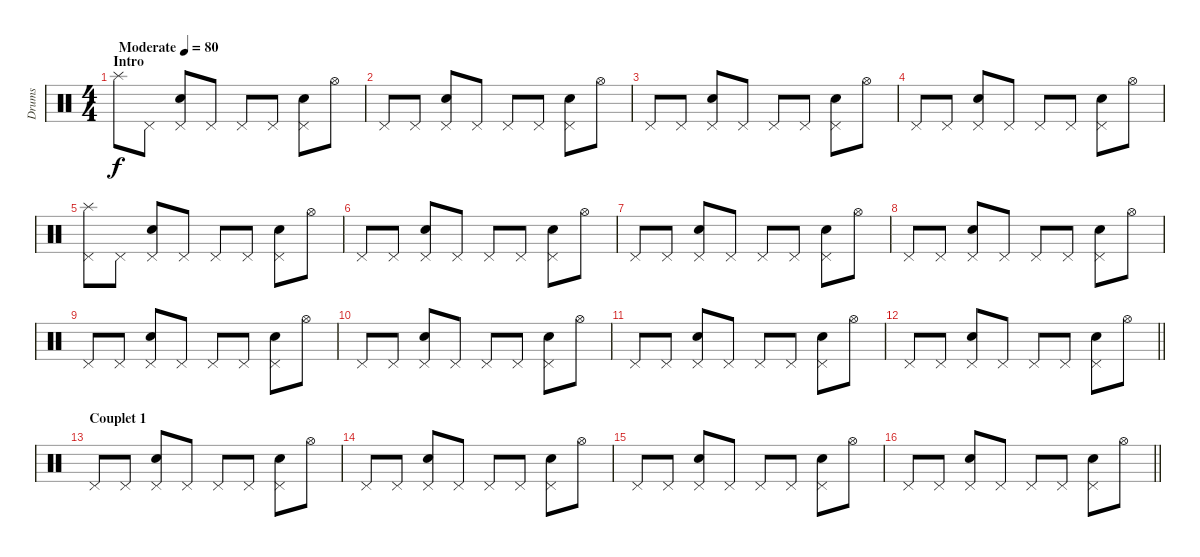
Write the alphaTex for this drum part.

\track ("Drums" "Drums") {instrument percussion}
\staff {score}
\articulation defaults
\ts (4 4)
\section ("" "Intro")
\tempo (80 "Moderate")
\clef neutral
\ks c "Splash (hit)".8{dy f} "Pedal Hi-Hat (hit)".8
("Pedal Hi-Hat (hit)" "Snare (hit) 2").8 "Pedal Hi-Hat (hit)".8 "Pedal Hi-Hat (hit)".8 "Pedal Hi-Hat (hit)".8 ("Pedal Hi-Hat (hit)" "Snare (hit) 2").8 "Hi-Hat (open)".8 |
"Pedal Hi-Hat (hit)".8 "Pedal Hi-Hat (hit)".8 ("Pedal Hi-Hat (hit)" "Snare (hit) 2").8 "Pedal Hi-Hat (hit)".8 "Pedal Hi-Hat (hit)".8 "Pedal Hi-Hat (hit)".8 ("Pedal Hi-Hat (hit)" "Snare (hit) 2").8 "Hi-Hat (open)".8 |
"Pedal Hi-Hat (hit)".8 "Pedal Hi-Hat (hit)".8 ("Pedal Hi-Hat (hit)" "Snare (hit) 2").8 "Pedal Hi-Hat (hit)".8 "Pedal Hi-Hat (hit)".8 "Pedal Hi-Hat (hit)".8 ("Pedal Hi-Hat (hit)" "Snare (hit) 2").8 "Hi-Hat (open)".8 |
"Pedal Hi-Hat (hit)".8 "Pedal Hi-Hat (hit)".8 ("Pedal Hi-Hat (hit)" "Snare (hit) 2").8 "Pedal Hi-Hat (hit)".8 "Pedal Hi-Hat (hit)".8 "Pedal Hi-Hat (hit)".8 ("Pedal Hi-Hat (hit)" "Snare (hit) 2").8 "Hi-Hat (open)".8 |
("Pedal Hi-Hat (hit)" "Splash (hit)").8 "Pedal Hi-Hat (hit)".8 ("Pedal Hi-Hat (hit)" "Snare (hit) 2").8 "Pedal Hi-Hat (hit)".8 "Pedal Hi-Hat (hit)".8 "Pedal Hi-Hat (hit)".8 ("Pedal Hi-Hat (hit)" "Snare (hit) 2").8 "Hi-Hat (open)".8 |
"Pedal Hi-Hat (hit)".8 "Pedal Hi-Hat (hit)".8 ("Pedal Hi-Hat (hit)" "Snare (hit) 2").8 "Pedal Hi-Hat (hit)".8 "Pedal Hi-Hat (hit)".8 "Pedal Hi-Hat (hit)".8 ("Pedal Hi-Hat (hit)" "Snare (hit) 2").8 "Hi-Hat (open)".8 |
"Pedal Hi-Hat (hit)".8 "Pedal Hi-Hat (hit)".8 ("Pedal Hi-Hat (hit)" "Snare (hit) 2").8 "Pedal Hi-Hat (hit)".8 "Pedal Hi-Hat (hit)".8 "Pedal Hi-Hat (hit)".8 ("Pedal Hi-Hat (hit)" "Snare (hit) 2").8 "Hi-Hat (open)".8 |
"Pedal Hi-Hat (hit)".8 "Pedal Hi-Hat (hit)".8 ("Pedal Hi-Hat (hit)" "Snare (hit) 2").8 "Pedal Hi-Hat (hit)".8 "Pedal Hi-Hat (hit)".8 "Pedal Hi-Hat (hit)".8 ("Pedal Hi-Hat (hit)" "Snare (hit) 2").8 "Hi-Hat (open)".8 |
"Pedal Hi-Hat (hit)".8 "Pedal Hi-Hat (hit)".8 ("Pedal Hi-Hat (hit)" "Snare (hit) 2").8 "Pedal Hi-Hat (hit)".8 "Pedal Hi-Hat (hit)".8 "Pedal Hi-Hat (hit)".8 ("Pedal Hi-Hat (hit)" "Snare (hit) 2").8 "Hi-Hat (open)".8 |
"Pedal Hi-Hat (hit)".8 "Pedal Hi-Hat (hit)".8 ("Pedal Hi-Hat (hit)" "Snare (hit) 2").8 "Pedal Hi-Hat (hit)".8 "Pedal Hi-Hat (hit)".8 "Pedal Hi-Hat (hit)".8 ("Pedal Hi-Hat (hit)" "Snare (hit) 2").8 "Hi-Hat (open)".8 |
"Pedal Hi-Hat (hit)".8 "Pedal Hi-Hat (hit)".8 ("Pedal Hi-Hat (hit)" "Snare (hit) 2").8 "Pedal Hi-Hat (hit)".8 "Pedal Hi-Hat (hit)".8 "Pedal Hi-Hat (hit)".8 ("Pedal Hi-Hat (hit)" "Snare (hit) 2").8 "Hi-Hat (open)".8 |
\barLineRight lightlight "Pedal Hi-Hat (hit)".8 "Pedal Hi-Hat (hit)".8
("Pedal Hi-Hat (hit)" "Snare (hit) 2").8 "Pedal Hi-Hat (hit)".8 "Pedal Hi-Hat (hit)".8 "Pedal Hi-Hat (hit)".8 ("Pedal Hi-Hat (hit)" "Snare (hit) 2").8 "Hi-Hat (open)".8 |
\section ("" "Couplet 1")
"Pedal Hi-Hat (hit)".8 "Pedal Hi-Hat (hit)".8 ("Pedal Hi-Hat (hit)" "Snare (hit) 2").8 "Pedal Hi-Hat (hit)".8 "Pedal Hi-Hat (hit)".8 "Pedal Hi-Hat (hit)".8 ("Pedal Hi-Hat (hit)" "Snare (hit) 2").8 "Hi-Hat (open)".8 |
"Pedal Hi-Hat (hit)".8 "Pedal Hi-Hat (hit)".8 ("Pedal Hi-Hat (hit)" "Snare (hit) 2").8 "Pedal Hi-Hat (hit)".8 "Pedal Hi-Hat (hit)".8 "Pedal Hi-Hat (hit)".8 ("Pedal Hi-Hat (hit)" "Snare (hit) 2").8 "Hi-Hat (open)".8 |
"Pedal Hi-Hat (hit)".8 "Pedal Hi-Hat (hit)".8 ("Pedal Hi-Hat (hit)" "Snare (hit) 2").8 "Pedal Hi-Hat (hit)".8 "Pedal Hi-Hat (hit)".8 "Pedal Hi-Hat (hit)".8 ("Pedal Hi-Hat (hit)" "Snare (hit) 2").8 "Hi-Hat (open)".8 |
\barLineRight lightlight "Pedal Hi-Hat (hit)".8 "Pedal Hi-Hat (hit)".8
("Pedal Hi-Hat (hit)" "Snare (hit) 2").8 "Pedal Hi-Hat (hit)".8 "Pedal Hi-Hat (hit)".8 "Pedal Hi-Hat (hit)".8 ("Pedal Hi-Hat (hit)" "Snare (hit) 2").8 "Hi-Hat (open)".8
